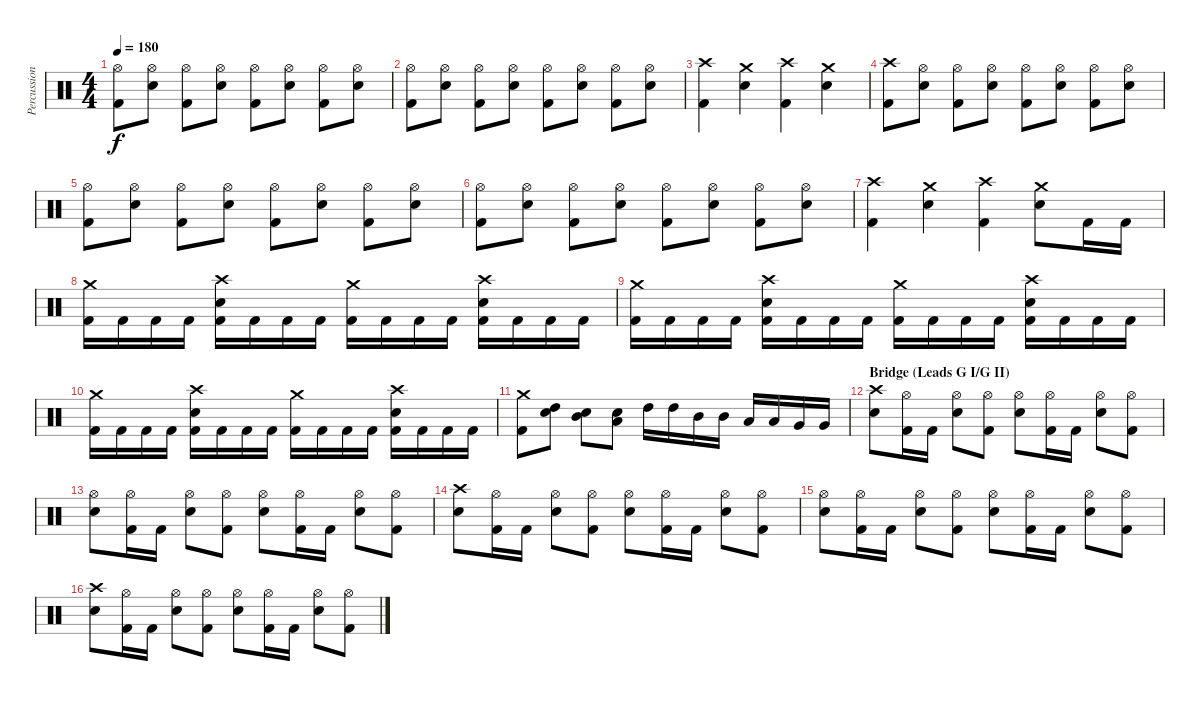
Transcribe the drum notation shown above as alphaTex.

\track ("Percussion" "Percussion") {instrument percussion}
\staff {score}
\articulation defaults
\ts (4 4)
\tempo 180
\clef neutral
\ks c
("Hi-Hat (open)" "Kick (hit) 2").8{dy f} ("Hi-Hat (open)" "Snare (hit) 2").8 ("Hi-Hat (open)" "Kick (hit) 2").8 ("Hi-Hat (open)" "Snare (hit) 2").8 ("Hi-Hat (open)" "Kick (hit) 2").8 ("Hi-Hat (open)" "Snare (hit) 2").8 ("Hi-Hat (open)" "Kick (hit) 2").8 ("Hi-Hat (open)" "Snare (hit) 2").8 |
("Hi-Hat (open)" "Kick (hit) 2").8 ("Hi-Hat (open)" "Snare (hit) 2").8 ("Hi-Hat (open)" "Kick (hit) 2").8 ("Hi-Hat (open)" "Snare (hit) 2").8 ("Hi-Hat (open)" "Kick (hit) 2").8 ("Hi-Hat (open)" "Snare (hit) 2").8 ("Hi-Hat (open)" "Kick (hit) 2").8 ("Hi-Hat (open)" "Snare (hit) 2").8 |
("Crash high (hit)" "Kick (hit) 2").4 ("Crash medium (hit)" "Snare (hit) 2").4 ("Crash high (hit)" "Kick (hit) 2").4 ("Crash medium (hit)" "Snare (hit) 2").4 |
("Crash high (hit)" "Kick (hit) 2").8 ("Hi-Hat (open)" "Snare (hit) 2").8 ("Hi-Hat (open)" "Kick (hit) 2").8 ("Hi-Hat (open)" "Snare (hit) 2").8 ("Hi-Hat (open)" "Kick (hit) 2").8 ("Hi-Hat (open)" "Snare (hit) 2").8 ("Hi-Hat (open)" "Kick (hit) 2").8 ("Hi-Hat (open)" "Snare (hit) 2").8 |
("Hi-Hat (open)" "Kick (hit) 2").8 ("Hi-Hat (open)" "Snare (hit) 2").8 ("Hi-Hat (open)" "Kick (hit) 2").8 ("Hi-Hat (open)" "Snare (hit) 2").8 ("Hi-Hat (open)" "Kick (hit) 2").8 ("Hi-Hat (open)" "Snare (hit) 2").8 ("Hi-Hat (open)" "Kick (hit) 2").8 ("Hi-Hat (open)" "Snare (hit) 2").8 |
("Hi-Hat (open)" "Kick (hit) 2").8 ("Hi-Hat (open)" "Snare (hit) 2").8 ("Hi-Hat (open)" "Kick (hit) 2").8 ("Hi-Hat (open)" "Snare (hit) 2").8 ("Hi-Hat (open)" "Kick (hit) 2").8 ("Hi-Hat (open)" "Snare (hit) 2").8 ("Hi-Hat (open)" "Kick (hit) 2").8 ("Hi-Hat (open)" "Snare (hit) 2").8 |
("Crash high (hit)" "Kick (hit) 2").4 ("Crash medium (hit)" "Snare (hit) 2").4 ("Crash high (hit)" "Kick (hit) 2").4 ("Crash medium (hit)" "Snare (hit) 2").8 "Kick (hit) 2".16 "Kick (hit) 2".16 |
("Crash medium (hit)" "Kick (hit) 2").16 "Kick (hit) 2".16 "Kick (hit) 2".16 "Kick (hit) 2".16 ("Crash high (hit)" "Snare (hit) 2" "Kick (hit) 2").16 "Kick (hit) 2".16 "Kick (hit) 2".16 "Kick (hit) 2".16 ("Crash medium (hit)" "Kick (hit) 2").16 "Kick (hit) 2".16 "Kick (hit) 2".16 "Kick (hit) 2".16 ("Crash high (hit)" "Snare (hit) 2" "Kick (hit) 2").16 "Kick (hit) 2".16 "Kick (hit) 2".16 "Kick (hit) 2".16 |
("Crash medium (hit)" "Kick (hit) 2").16 "Kick (hit) 2".16 "Kick (hit) 2".16 "Kick (hit) 2".16 ("Crash high (hit)" "Snare (hit) 2" "Kick (hit) 2").16 "Kick (hit) 2".16 "Kick (hit) 2".16 "Kick (hit) 2".16 ("Crash medium (hit)" "Kick (hit) 2").16 "Kick (hit) 2".16 "Kick (hit) 2".16 "Kick (hit) 2".16 ("Crash high (hit)" "Snare (hit) 2" "Kick (hit) 2").16 "Kick (hit) 2".16 "Kick (hit) 2".16 "Kick (hit) 2".16 |
("Crash medium (hit)" "Kick (hit) 2").16 "Kick (hit) 2".16 "Kick (hit) 2".16 "Kick (hit) 2".16 ("Crash high (hit)" "Snare (hit) 2" "Kick (hit) 2").16 "Kick (hit) 2".16 "Kick (hit) 2".16 "Kick (hit) 2".16 ("Crash medium (hit)" "Kick (hit) 2").16 "Kick (hit) 2".16 "Kick (hit) 2".16 "Kick (hit) 2".16 ("Crash high (hit)" "Snare (hit) 2" "Kick (hit) 2").16 "Kick (hit) 2".16 "Kick (hit) 2".16 "Kick (hit) 2".16 |
("Crash medium (hit)" "Kick (hit) 2").8 ("High Tom (hit)" "Snare (hit) 2").8 ("Mid Tom (hit)" "Snare (hit) 2").8 ("Low Tom (hit)" "Snare (hit) 2").8 "High Tom (hit)".16 "High Tom (hit)".16 "Mid Tom (hit)".16 "Mid Tom (hit)".16 "Low Tom (hit)".16 "Low Tom (hit)".16 "Very Low Tom (hit)".16 "Very Low Tom (hit)".16 |
\section ("" "Bridge (Leads G I/G II)")
("Crash high (hit)" "Snare (hit) 2").8 ("Hi-Hat (open)" "Kick (hit) 2").16 "Kick (hit) 2".16 ("Hi-Hat (open)" "Snare (hit) 2").8 ("Hi-Hat (open)" "Kick (hit) 2").8 ("Hi-Hat (open)" "Snare (hit) 2").8 ("Hi-Hat (open)" "Kick (hit) 2").16 "Kick (hit) 2".16 ("Hi-Hat (open)" "Snare (hit) 2").8 ("Hi-Hat (open)" "Kick (hit) 2").8 |
("Hi-Hat (open)" "Snare (hit) 2").8 ("Hi-Hat (open)" "Kick (hit) 2").16 "Kick (hit) 2".16 ("Hi-Hat (open)" "Snare (hit) 2").8 ("Hi-Hat (open)" "Kick (hit) 2").8 ("Hi-Hat (open)" "Snare (hit) 2").8 ("Hi-Hat (open)" "Kick (hit) 2").16 "Kick (hit) 2".16 ("Hi-Hat (open)" "Snare (hit) 2").8 ("Hi-Hat (open)" "Kick (hit) 2").8 |
("Crash high (hit)" "Snare (hit) 2").8 ("Hi-Hat (open)" "Kick (hit) 2").16 "Kick (hit) 2".16 ("Hi-Hat (open)" "Snare (hit) 2").8 ("Hi-Hat (open)" "Kick (hit) 2").8 ("Hi-Hat (open)" "Snare (hit) 2").8 ("Hi-Hat (open)" "Kick (hit) 2").16 "Kick (hit) 2".16 ("Hi-Hat (open)" "Snare (hit) 2").8 ("Hi-Hat (open)" "Kick (hit) 2").8 |
("Hi-Hat (open)" "Snare (hit) 2").8 ("Hi-Hat (open)" "Kick (hit) 2").16 "Kick (hit) 2".16 ("Hi-Hat (open)" "Snare (hit) 2").8 ("Hi-Hat (open)" "Kick (hit) 2").8 ("Hi-Hat (open)" "Snare (hit) 2").8 ("Hi-Hat (open)" "Kick (hit) 2").16 "Kick (hit) 2".16 ("Hi-Hat (open)" "Snare (hit) 2").8 ("Hi-Hat (open)" "Kick (hit) 2").8 |
("Crash high (hit)" "Snare (hit) 2").8 ("Hi-Hat (open)" "Kick (hit) 2").16 "Kick (hit) 2".16 ("Hi-Hat (open)" "Snare (hit) 2").8 ("Hi-Hat (open)" "Kick (hit) 2").8 ("Hi-Hat (open)" "Snare (hit) 2").8 ("Hi-Hat (open)" "Kick (hit) 2").16 "Kick (hit) 2".16 ("Hi-Hat (open)" "Snare (hit) 2").8 ("Hi-Hat (open)" "Kick (hit) 2").8
